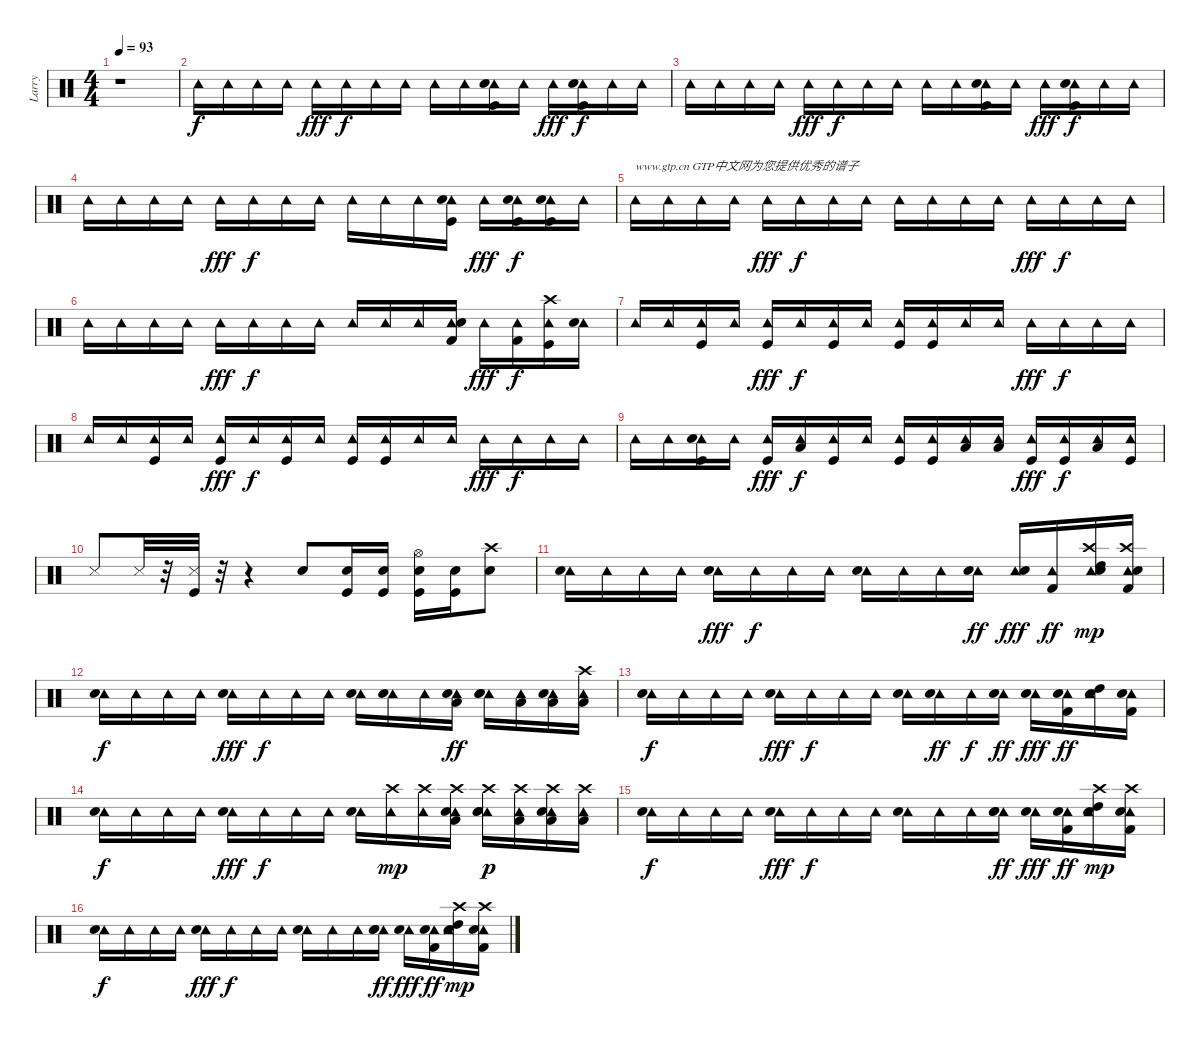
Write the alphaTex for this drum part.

\track ("Larry" "Larry") {instrument percussion}
\staff {score}
\articulation defaults
\ts (4 4)
\tempo 93
\clef neutral
\ks c
r.1{dy f} |
"Tambourine (hit)".16 "Tambourine (hit)".16 "Tambourine (hit)".16 "Tambourine (hit)".16 "Tambourine (hit)".16{dy fff} "Tambourine (hit)".16{dy f} "Tambourine (hit)".16 "Tambourine (hit)".16 "Tambourine (hit)".16 "Tambourine (hit)".16 ("Tambourine (hit)" "Kick (hit)" "Snare (hit) 2").16 "Tambourine (hit)".16 "Tambourine (hit)".16{dy fff} ("Tambourine (hit)" "Kick (hit)" "Snare (hit) 2").16{dy f} "Tambourine (hit)".16 "Tambourine (hit)".16 |
"Tambourine (hit)".16 "Tambourine (hit)".16 "Tambourine (hit)".16 "Tambourine (hit)".16 "Tambourine (hit)".16{dy fff} "Tambourine (hit)".16{dy f} "Tambourine (hit)".16 "Tambourine (hit)".16 "Tambourine (hit)".16 "Tambourine (hit)".16 ("Tambourine (hit)" "Kick (hit)" "Snare (hit) 2").16 "Tambourine (hit)".16 "Tambourine (hit)".16{dy fff} ("Tambourine (hit)" "Kick (hit)" "Snare (hit) 2").16{dy f} "Tambourine (hit)".16 "Tambourine (hit)".16 |
"Tambourine (hit)".16 "Tambourine (hit)".16 "Tambourine (hit)".16 "Tambourine (hit)".16 "Tambourine (hit)".16{dy fff} "Tambourine (hit)".16{dy f} "Tambourine (hit)".16 "Tambourine (hit)".16 "Tambourine (hit)".16 "Tambourine (hit)".16 "Tambourine (hit)".16 ("Tambourine (hit)" "Kick (hit)" "Snare (hit) 2").16 "Tambourine (hit)".16{dy fff} ("Tambourine (hit)" "Kick (hit)" "Snare (hit) 2").16{dy f} ("Tambourine (hit)" "Kick (hit)" "Snare (hit) 2").16 "Tambourine (hit)".16 |
"Tambourine (hit)".16{txt "www.gtp.cn GTP中文网为您提供优秀的谱子"} "Tambourine (hit)".16 "Tambourine (hit)".16 "Tambourine (hit)".16 "Tambourine (hit)".16{dy fff} "Tambourine (hit)".16{dy f} "Tambourine (hit)".16 "Tambourine (hit)".16 "Tambourine (hit)".16 "Tambourine (hit)".16 "Tambourine (hit)".16 "Tambourine (hit)".16 "Tambourine (hit)".16{dy fff} "Tambourine (hit)".16{dy f} "Tambourine (hit)".16 "Tambourine (hit)".16 |
"Tambourine (hit)".16 "Tambourine (hit)".16 "Tambourine (hit)".16 "Tambourine (hit)".16 "Tambourine (hit)".16{dy fff} "Tambourine (hit)".16{dy f} "Tambourine (hit)".16 "Tambourine (hit)".16 "Tambourine (hit)".16 "Tambourine (hit)".16 "Tambourine (hit)".16 ("Tambourine (hit)" "Kick (hit) 2" "Snare (hit) 2").16 "Tambourine (hit)".16{dy fff} ("Tambourine (hit)" "Kick (hit) 2").16{dy f} ("Tambourine (hit)" "Kick (hit)" "Crash high (hit)").16 ("Tambourine (hit)" "Snare (hit) 2").16 |
"Tambourine (hit)".16 "Tambourine (hit)".16 ("Tambourine (hit)" "Kick (hit)").16 "Tambourine (hit)".16 ("Tambourine (hit)" "Kick (hit)").16{dy fff} "Tambourine (hit)".16{dy f} ("Tambourine (hit)" "Kick (hit)").16 "Tambourine (hit)".16 ("Tambourine (hit)" "Kick (hit)").16 ("Tambourine (hit)" "Kick (hit)").16 "Tambourine (hit)".16 "Tambourine (hit)".16 "Tambourine (hit)".16{dy fff} "Tambourine (hit)".16{dy f} "Tambourine (hit)".16 "Tambourine (hit)".16 |
"Tambourine (hit)".16 "Tambourine (hit)".16 ("Tambourine (hit)" "Kick (hit)").16 "Tambourine (hit)".16 ("Tambourine (hit)" "Kick (hit)").16{dy fff} "Tambourine (hit)".16{dy f} ("Tambourine (hit)" "Kick (hit)").16 "Tambourine (hit)".16 ("Tambourine (hit)" "Kick (hit)").16 ("Tambourine (hit)" "Kick (hit)").16 "Tambourine (hit)".16 "Tambourine (hit)".16 "Tambourine (hit)".16{dy fff} "Tambourine (hit)".16{dy f} "Tambourine (hit)".16 "Tambourine (hit)".16 |
"Tambourine (hit)".16 "Tambourine (hit)".16 ("Tambourine (hit)" "Electric Snare (hit)" "Kick (hit)").16 "Tambourine (hit)".16 ("Tambourine (hit)" "Kick (hit)").16{dy fff} ("Tambourine (hit)" "Low Floor Tom (hit)").16{dy f} ("Tambourine (hit)" "Kick (hit)").16 "Tambourine (hit)".16 ("Tambourine (hit)" "Kick (hit)").16 ("Tambourine (hit)" "Kick (hit)").16 ("Tambourine (hit)" "Low Floor Tom (hit)").16 ("Tambourine (hit)" "Low Floor Tom (hit)").16 ("Tambourine (hit)" "Kick (hit)").16{dy fff} ("Tambourine (hit)" "Kick (hit)").16{dy f} ("Tambourine (hit)" "Low Floor Tom (hit)").16 ("Tambourine (hit)" "Kick (hit)").16 |
"Snare (side stick) 3".8 "Snare (side stick) 3".32 r.32 ("Snare (side stick) 3" "Kick (hit)").32 r.32 r.4 "Snare (hit) 2".8 ("Kick (hit)" "Snare (hit) 2").16 ("Snare (hit) 2" "Kick (hit)").16 ("Snare (hit) 2" "Kick (hit)" "Hi-Hat (open)").16 ("Snare (hit) 2" "Kick (hit)").16 ("Snare (hit) 2" "Crash high (hit)").8{volume 7} |
("Tambourine (hit)" "Electric Snare (hit)").16 "Tambourine (hit)".16 "Tambourine (hit)".16 "Tambourine (hit)".16 ("Tambourine (hit)" "Electric Snare (hit)").16{dy fff} "Tambourine (hit)".16{dy f} "Tambourine (hit)".16 "Tambourine (hit)".16 ("Tambourine (hit)" "Electric Snare (hit)").16 "Tambourine (hit)".16 "Tambourine (hit)".16 ("Tambourine (hit)" "Snare (hit) 2").16{dy ff} ("Tambourine (hit)" "Electric Snare (hit)").16{dy fff} ("Tambourine (hit)" "Kick (hit) 2").16{dy ff} ("Tambourine (hit)" "Electric Snare (hit)" "High Tom (hit)" "Crash high (hit)").16{dy mp} ("Tambourine (hit)" "Electric Snare (hit)" "Kick (hit) 2" "Crash high (hit)").16 |
("Tambourine (hit)" "Electric Snare (hit)").16{dy f} "Tambourine (hit)".16 "Tambourine (hit)".16 "Tambourine (hit)".16 ("Tambourine (hit)" "Electric Snare (hit)").16{dy fff} "Tambourine (hit)".16{dy f} "Tambourine (hit)".16 "Tambourine (hit)".16 ("Tambourine (hit)" "Electric Snare (hit)").16 ("Tambourine (hit)" "Snare (hit) 2").16 "Tambourine (hit)".16 ("Tambourine (hit)" "Snare (hit) 2" "Low Floor Tom (hit)").16{dy ff} ("Tambourine (hit)" "Snare (hit) 2" "Electric Snare (hit)").16 ("Tambourine (hit)" "Low Floor Tom (hit)").16 ("Tambourine (hit)" "Snare (hit) 2" "Low Floor Tom (hit)").16 ("Tambourine (hit)" "Crash high (hit)" "Low Floor Tom (hit)").16 |
("Tambourine (hit)" "Electric Snare (hit)").16{dy f} "Tambourine (hit)".16 "Tambourine (hit)".16 "Tambourine (hit)".16 ("Tambourine (hit)" "Electric Snare (hit)").16{dy fff} "Tambourine (hit)".16{dy f} "Tambourine (hit)".16 "Tambourine (hit)".16 ("Tambourine (hit)" "Electric Snare (hit)").16 ("Tambourine (hit)" "Snare (hit) 2").16{dy ff} "Tambourine (hit)".16{dy f} ("Tambourine (hit)" "Snare (hit) 2").16{dy ff} ("Tambourine (hit)" "Electric Snare (hit)").16{dy fff} ("Tambourine (hit)" "Kick (hit) 2" "Electric Snare (hit)").16{dy ff} ("Tambourine (hit)" "Electric Snare (hit)" "High Tom (hit)").16 ("Tambourine (hit)" "Electric Snare (hit)" "Kick (hit) 2").16 |
("Tambourine (hit)" "Electric Snare (hit)").16{dy f} "Tambourine (hit)".16 "Tambourine (hit)".16 "Tambourine (hit)".16 ("Tambourine (hit)" "Electric Snare (hit)").16{dy fff} "Tambourine (hit)".16{dy f} "Tambourine (hit)".16 "Tambourine (hit)".16 ("Tambourine (hit)" "Electric Snare (hit)").16 ("Tambourine (hit)" "Crash high (hit)").16{dy mp} ("Tambourine (hit)" "Crash high (hit)").16 ("Tambourine (hit)" "Snare (hit) 2" "Low Floor Tom (hit)" "Crash high (hit)").16 ("Tambourine (hit)" "Electric Snare (hit)" "Snare (hit) 2" "Crash high (hit)").16{dy p} ("Tambourine (hit)" "Low Floor Tom (hit)" "Crash high (hit)").16 ("Tambourine (hit)" "Snare (hit) 2" "Low Floor Tom (hit)" "Crash high (hit)").16 ("Tambourine (hit)" "Low Floor Tom (hit)" "Crash high (hit)").16 |
("Tambourine (hit)" "Electric Snare (hit)").16{dy f} "Tambourine (hit)".16 "Tambourine (hit)".16 "Tambourine (hit)".16 ("Tambourine (hit)" "Electric Snare (hit)").16{dy fff} "Tambourine (hit)".16{dy f} "Tambourine (hit)".16 "Tambourine (hit)".16 ("Tambourine (hit)" "Electric Snare (hit)").16 "Tambourine (hit)".16 "Tambourine (hit)".16 ("Tambourine (hit)" "Snare (hit) 2" "Electric Snare (hit)").16{dy ff} ("Tambourine (hit)" "Electric Snare (hit)").16{dy fff} ("Tambourine (hit)" "Kick (hit) 2" "Electric Snare (hit)").16{dy ff} ("Tambourine (hit)" "Electric Snare (hit)" "High Tom (hit)" "Crash high (hit)").16{dy mp} ("Tambourine (hit)" "Electric Snare (hit)" "Kick (hit) 2" "Crash high (hit)").16 |
("Tambourine (hit)" "Electric Snare (hit)").16{dy f} "Tambourine (hit)".16 "Tambourine (hit)".16 "Tambourine (hit)".16 ("Tambourine (hit)" "Electric Snare (hit)").16{dy fff} "Tambourine (hit)".16{dy f} "Tambourine (hit)".16 "Tambourine (hit)".16 ("Tambourine (hit)" "Electric Snare (hit)").16 "Tambourine (hit)".16 "Tambourine (hit)".16 ("Tambourine (hit)" "Snare (hit) 2" "Electric Snare (hit)").16{dy ff} ("Tambourine (hit)" "Electric Snare (hit)").16{dy fff} ("Tambourine (hit)" "Kick (hit) 2" "Electric Snare (hit)").16{dy ff} ("Tambourine (hit)" "Electric Snare (hit)" "High Tom (hit)" "Crash high (hit)").16{dy mp} ("Tambourine (hit)" "Electric Snare (hit)" "Kick (hit) 2" "Crash high (hit)").16
